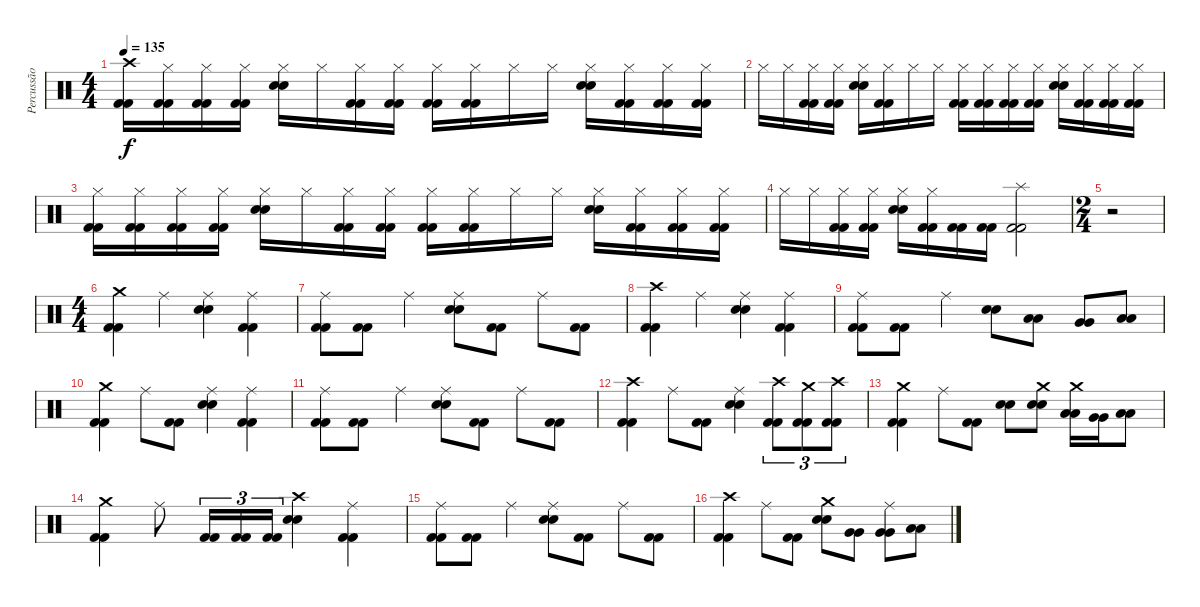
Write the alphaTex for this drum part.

\track ("Percussão" "Percussão") {instrument percussion}
\staff {score}
\articulation defaults
\ts (4 4)
\tempo 135
\clef neutral
\ks c
("Crash high (hit)" "Kick (hit) 2" "Kick (hit) 2").16{dy f} ("Hi-Hat (closed)" "Kick (hit) 2" "Kick (hit) 2").16 ("Hi-Hat (closed)" "Kick (hit) 2" "Kick (hit) 2").16 ("Hi-Hat (closed)" "Kick (hit) 2" "Kick (hit) 2").16 ("Hi-Hat (closed)" "Electric Snare (hit)" "Electric Snare (hit)").16 "Hi-Hat (closed)".16 ("Hi-Hat (closed)" "Kick (hit) 2" "Kick (hit) 2").16 ("Hi-Hat (closed)" "Kick (hit) 2" "Kick (hit) 2").16 ("Hi-Hat (closed)" "Kick (hit) 2" "Kick (hit) 2").16 ("Hi-Hat (closed)" "Kick (hit) 2" "Kick (hit) 2").16 "Hi-Hat (closed)".16 "Hi-Hat (closed)".16 ("Hi-Hat (closed)" "Electric Snare (hit)" "Electric Snare (hit)").16 ("Hi-Hat (closed)" "Kick (hit) 2" "Kick (hit) 2").16 ("Hi-Hat (closed)" "Kick (hit) 2" "Kick (hit) 2").16 ("Hi-Hat (closed)" "Kick (hit) 2" "Kick (hit) 2").16 |
"Hi-Hat (closed)".16 "Hi-Hat (closed)".16 ("Hi-Hat (closed)" "Kick (hit) 2" "Kick (hit) 2").16 ("Hi-Hat (closed)" "Kick (hit) 2" "Kick (hit) 2").16 ("Hi-Hat (closed)" "Electric Snare (hit)" "Electric Snare (hit)").16 ("Hi-Hat (closed)" "Kick (hit) 2" "Kick (hit) 2").16 "Hi-Hat (closed)".16 "Hi-Hat (closed)".16 ("Hi-Hat (closed)" "Kick (hit) 2" "Kick (hit) 2").16 ("Hi-Hat (closed)" "Kick (hit) 2" "Kick (hit) 2").16 ("Hi-Hat (closed)" "Kick (hit) 2" "Kick (hit) 2").16 ("Hi-Hat (closed)" "Kick (hit) 2" "Kick (hit) 2").16 ("Hi-Hat (closed)" "Electric Snare (hit)" "Electric Snare (hit)").16 ("Hi-Hat (closed)" "Kick (hit) 2" "Kick (hit) 2").16 ("Hi-Hat (closed)" "Kick (hit) 2" "Kick (hit) 2").16 ("Hi-Hat (closed)" "Kick (hit) 2" "Kick (hit) 2").16 |
("Hi-Hat (closed)" "Kick (hit) 2" "Kick (hit) 2").16 ("Hi-Hat (closed)" "Kick (hit) 2" "Kick (hit) 2").16 ("Hi-Hat (closed)" "Kick (hit) 2" "Kick (hit) 2").16 ("Hi-Hat (closed)" "Kick (hit) 2" "Kick (hit) 2").16 ("Hi-Hat (closed)" "Electric Snare (hit)" "Electric Snare (hit)").16 "Hi-Hat (closed)".16 ("Hi-Hat (closed)" "Kick (hit) 2" "Kick (hit) 2").16 ("Hi-Hat (closed)" "Kick (hit) 2" "Kick (hit) 2").16 ("Hi-Hat (closed)" "Kick (hit) 2" "Kick (hit) 2").16 ("Hi-Hat (closed)" "Kick (hit) 2" "Kick (hit) 2").16 "Hi-Hat (closed)".16 "Hi-Hat (closed)".16 ("Hi-Hat (closed)" "Electric Snare (hit)" "Electric Snare (hit)").16 ("Hi-Hat (closed)" "Kick (hit) 2" "Kick (hit) 2").16 ("Hi-Hat (closed)" "Kick (hit) 2" "Kick (hit) 2").16 ("Hi-Hat (closed)" "Kick (hit) 2" "Kick (hit) 2").16 |
"Hi-Hat (closed)".16 "Hi-Hat (closed)".16 ("Hi-Hat (closed)" "Kick (hit) 2" "Kick (hit) 2").16 ("Hi-Hat (closed)" "Kick (hit) 2" "Kick (hit) 2").16 ("Hi-Hat (closed)" "Electric Snare (hit)" "Electric Snare (hit)").16 ("Hi-Hat (closed)" "Kick (hit) 2" "Kick (hit) 2").16 ("Kick (hit) 2" "Kick (hit) 2").16 ("Kick (hit) 2" "Kick (hit) 2").16 ("Splash (hit)" "Kick (hit) 2" "Kick (hit) 2").2 |
\ts (2 4)
r.2 |
\ts (4 4)
("Crash medium (hit)" "Kick (hit) 2" "Kick (hit) 2").4 "Ride (middle)".4 ("Ride (middle)" "Electric Snare (hit)" "Electric Snare (hit)").4 ("Ride (middle)" "Kick (hit) 2" "Kick (hit) 2").4 |
("Ride (middle)" "Kick (hit) 2" "Kick (hit) 2").8 ("Kick (hit) 2" "Kick (hit) 2").8 "Ride (middle)".4 ("Ride (middle)" "Electric Snare (hit)" "Electric Snare (hit)").8 ("Kick (hit) 2" "Kick (hit) 2").8 "Ride (middle)".8 ("Kick (hit) 2" "Kick (hit) 2").8 |
("Crash high (hit)" "Kick (hit) 2" "Kick (hit) 2").4 "Ride (middle)".4 ("Ride (middle)" "Electric Snare (hit)" "Electric Snare (hit)").4 ("Ride (middle)" "Kick (hit) 2" "Kick (hit) 2").4 |
("Ride (middle)" "Kick (hit) 2" "Kick (hit) 2").8 ("Kick (hit) 2" "Kick (hit) 2").8 "Ride (middle)".4 ("Electric Snare (hit)" "Electric Snare (hit)").8 ("Low Floor Tom (hit)" "Low Floor Tom (hit)").8 ("Very Low Tom (hit)" "Very Low Tom (hit)").8 ("Low Floor Tom (hit)" "Low Floor Tom (hit)").8 |
("Crash medium (hit)" "Kick (hit) 2" "Kick (hit) 2").4 "Ride (middle)".8 ("Kick (hit) 2" "Kick (hit) 2").8 ("Ride (middle)" "Electric Snare (hit)" "Electric Snare (hit)").4 ("Ride (middle)" "Kick (hit) 2" "Kick (hit) 2").4 |
("Ride (middle)" "Kick (hit) 2" "Kick (hit) 2").8 ("Kick (hit) 2" "Kick (hit) 2").8 "Ride (middle)".4 ("Ride (middle)" "Electric Snare (hit)" "Electric Snare (hit)").8 ("Kick (hit) 2" "Kick (hit) 2").8 "Ride (middle)".8 ("Kick (hit) 2" "Kick (hit) 2").8 |
("Crash high (hit)" "Kick (hit) 2" "Kick (hit) 2").4 "Ride (middle)".8 ("Kick (hit) 2" "Kick (hit) 2").8 ("Ride (middle)" "Electric Snare (hit)" "Electric Snare (hit)").4 ("Crash high (hit)" "Kick (hit) 2" "Kick (hit) 2").8{tu (3 2)} ("Crash medium (hit)" "Kick (hit) 2" "Kick (hit) 2").8{tu (3 2)} ("Crash high (hit)" "Kick (hit) 2" "Kick (hit) 2").8{tu (3 2)} |
("Crash medium (hit)" "Kick (hit) 2" "Kick (hit) 2").4 "Ride (middle)".8 ("Kick (hit) 2" "Kick (hit) 2").8 ("Electric Snare (hit)" "Electric Snare (hit)").8 ("Crash medium (hit)" "Electric Snare (hit)" "Electric Snare (hit)").8 ("Crash medium (hit)" "Low Tom (hit)" "Low Tom (hit)").16 ("Very Low Tom (hit)" "Very Low Tom (hit)").16 ("Low Floor Tom (hit)" "Low Floor Tom (hit)").8 |
("Crash medium (hit)" "Kick (hit) 2" "Kick (hit) 2").4 "Ride (middle)".8 ("Kick (hit) 2" "Kick (hit) 2").16{tu (3 2)} ("Kick (hit) 2" "Kick (hit) 2").16{tu (3 2)} ("Kick (hit) 2" "Kick (hit) 2").16{tu (3 2)} ("Crash high (hit)" "Electric Snare (hit)" "Electric Snare (hit)").4 ("Ride (middle)" "Kick (hit) 2" "Kick (hit) 2").4 |
("Ride (middle)" "Kick (hit) 2" "Kick (hit) 2").8 ("Kick (hit) 2" "Kick (hit) 2").8 "Ride (middle)".4 ("Ride (middle)" "Electric Snare (hit)" "Electric Snare (hit)").8 ("Kick (hit) 2" "Kick (hit) 2").8 "Ride (middle)".8 ("Kick (hit) 2" "Kick (hit) 2").8 |
("Crash high (hit)" "Kick (hit) 2" "Kick (hit) 2").4 "Ride (middle)".8 ("Kick (hit) 2" "Kick (hit) 2").8 ("Crash medium (hit)" "Electric Snare (hit)" "Electric Snare (hit)").8 ("Very Low Tom (hit)" "Very Low Tom (hit)").8 ("Ride (middle)" "Very Low Tom (hit)" "Very Low Tom (hit)").8 ("Low Floor Tom (hit)" "Low Floor Tom (hit)").8
